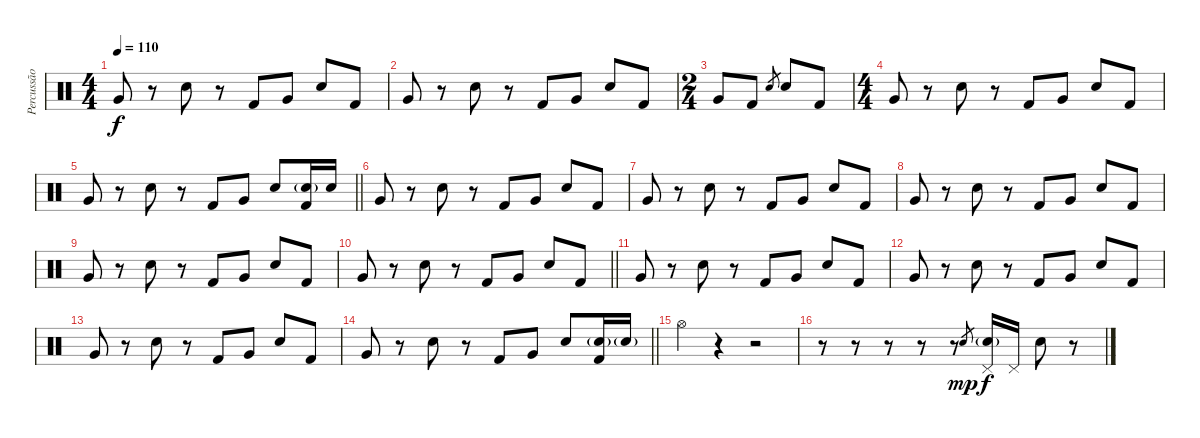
\track ("Percussão" "Percussão") {instrument percussion}
\staff {score}
\articulation defaults
\ts (4 4)
\tempo 110
\clef neutral
\ks c "Very Low Tom (hit)".8{dy f}
r.8 "Electric Snare (hit)".8 r.8 "Kick (hit) 2".8 "Very Low Tom (hit)".8 "Electric Snare (hit)".8 "Kick (hit) 2".8 |
"Very Low Tom (hit)".8 r.8 "Electric Snare (hit)".8 r.8 "Kick (hit) 2".8 "Very Low Tom (hit)".8 "Electric Snare (hit)".8 "Kick (hit) 2".8 |
\ts (2 4)
"Very Low Tom (hit)".8 "Kick (hit) 2".8 "Electric Snare (hit)".8{gr} "Electric Snare (hit)".8 "Kick (hit) 2".8 |
\ts (4 4)
"Very Low Tom (hit)".8 r.8 "Electric Snare (hit)".8 r.8 "Kick (hit) 2".8 "Very Low Tom (hit)".8 "Electric Snare (hit)".8 "Kick (hit) 2".8 |
\barLineRight lightlight "Very Low Tom (hit)".8
r.8 "Electric Snare (hit)".8 r.8 "Kick (hit) 2".8 "Very Low Tom (hit)".8 "Electric Snare (hit)".8 ("Electric Snare (hit)"{g} "Kick (hit) 2").16 "Electric Snare (hit)".16 |
"Very Low Tom (hit)".8 r.8 "Electric Snare (hit)".8 r.8 "Kick (hit) 2".8 "Very Low Tom (hit)".8 "Electric Snare (hit)".8 "Kick (hit) 2".8 |
"Very Low Tom (hit)".8 r.8 "Electric Snare (hit)".8 r.8 "Kick (hit) 2".8 "Very Low Tom (hit)".8 "Electric Snare (hit)".8 "Kick (hit) 2".8 |
"Very Low Tom (hit)".8 r.8 "Electric Snare (hit)".8 r.8 "Kick (hit) 2".8 "Very Low Tom (hit)".8 "Electric Snare (hit)".8 "Kick (hit) 2".8 |
"Very Low Tom (hit)".8 r.8 "Electric Snare (hit)".8 r.8 "Kick (hit) 2".8 "Very Low Tom (hit)".8 "Electric Snare (hit)".8 "Kick (hit) 2".8 |
\barLineRight lightlight "Very Low Tom (hit)".8
r.8 "Electric Snare (hit)".8 r.8 "Kick (hit) 2".8 "Very Low Tom (hit)".8 "Electric Snare (hit)".8 "Kick (hit) 2".8 |
"Very Low Tom (hit)".8 r.8 "Electric Snare (hit)".8 r.8 "Kick (hit) 2".8 "Very Low Tom (hit)".8 "Electric Snare (hit)".8 "Kick (hit) 2".8 |
"Very Low Tom (hit)".8 r.8 "Electric Snare (hit)".8 r.8 "Kick (hit) 2".8 "Very Low Tom (hit)".8 "Electric Snare (hit)".8 "Kick (hit) 2".8 |
"Very Low Tom (hit)".8 r.8 "Electric Snare (hit)".8 r.8 "Kick (hit) 2".8 "Very Low Tom (hit)".8 "Electric Snare (hit)".8 "Kick (hit) 2".8 |
\barLineRight lightlight "Very Low Tom (hit)".8
r.8 "Electric Snare (hit)".8 r.8 "Kick (hit) 2".8 "Very Low Tom (hit)".8 "Electric Snare (hit)".8 ("Kick (hit) 2" "Electric Snare (hit)"{g}).16 "Electric Snare (hit)"{g}.16 |
"Hi-Hat (open)".4 r.4 r.2 |
r.8 r.8 r.8 r.8 r.8 "Electric Snare (hit)".8{gr dy mp} ("Pedal Hi-Hat (hit)" "Electric Snare (hit)"{g}).16{dy f} "Pedal Hi-Hat (hit)".16 "Electric Snare (hit)".8 r.8
